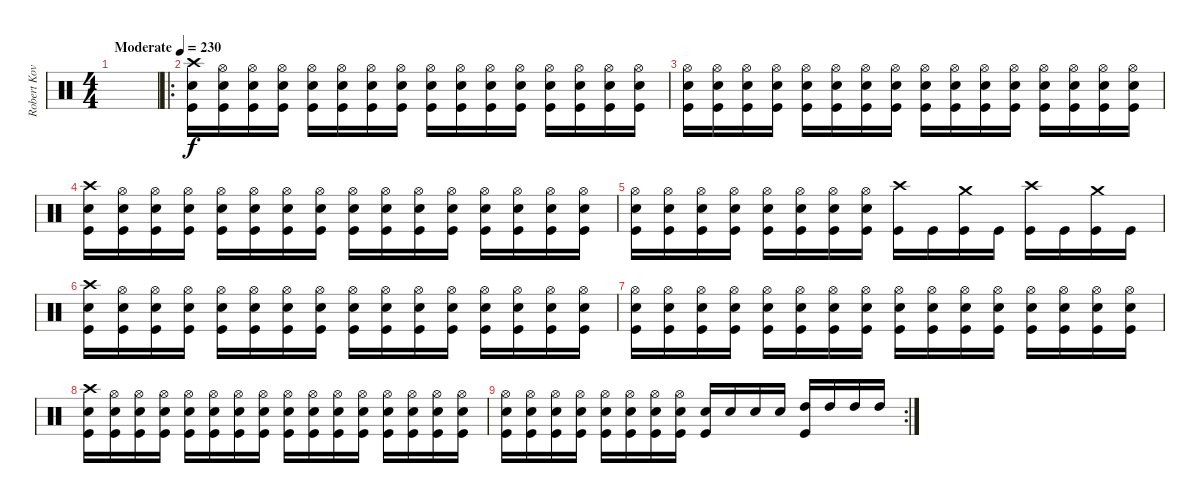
\track ("Robert Kovacic" "Robert Kov") {instrument percussion}
\staff {score}
\articulation defaults
\ts (4 4)
\tempo (230 "Moderate")
\clef neutral
\ks c
|
\ro
("Crash high (hit)" "Snare (hit) 2" "Kick (hit)").16 ("Hi-Hat (open)" "Snare (hit) 2" "Kick (hit)").16 ("Hi-Hat (open)" "Snare (hit) 2" "Kick (hit)").16 ("Hi-Hat (open)" "Snare (hit) 2" "Kick (hit)").16 ("Hi-Hat (open)" "Snare (hit) 2" "Kick (hit)").16 ("Hi-Hat (open)" "Snare (hit) 2" "Kick (hit)").16 ("Hi-Hat (open)" "Snare (hit) 2" "Kick (hit)").16 ("Hi-Hat (open)" "Snare (hit) 2" "Kick (hit)").16 ("Hi-Hat (open)" "Snare (hit) 2" "Kick (hit)").16 ("Hi-Hat (open)" "Snare (hit) 2" "Kick (hit)").16 ("Hi-Hat (open)" "Snare (hit) 2" "Kick (hit)").16 ("Hi-Hat (open)" "Snare (hit) 2" "Kick (hit)").16 ("Hi-Hat (open)" "Snare (hit) 2" "Kick (hit)").16 ("Hi-Hat (open)" "Snare (hit) 2" "Kick (hit)").16 ("Hi-Hat (open)" "Snare (hit) 2" "Kick (hit)").16 ("Hi-Hat (open)" "Snare (hit) 2" "Kick (hit)").16 |
("Hi-Hat (open)" "Snare (hit) 2" "Kick (hit)").16 ("Hi-Hat (open)" "Snare (hit) 2" "Kick (hit)").16 ("Hi-Hat (open)" "Snare (hit) 2" "Kick (hit)").16 ("Hi-Hat (open)" "Snare (hit) 2" "Kick (hit)").16 ("Hi-Hat (open)" "Snare (hit) 2" "Kick (hit)").16 ("Hi-Hat (open)" "Snare (hit) 2" "Kick (hit)").16 ("Hi-Hat (open)" "Snare (hit) 2" "Kick (hit)").16 ("Hi-Hat (open)" "Snare (hit) 2" "Kick (hit)").16 ("Hi-Hat (open)" "Snare (hit) 2" "Kick (hit)").16 ("Hi-Hat (open)" "Snare (hit) 2" "Kick (hit)").16 ("Hi-Hat (open)" "Snare (hit) 2" "Kick (hit)").16 ("Hi-Hat (open)" "Snare (hit) 2" "Kick (hit)").16 ("Hi-Hat (open)" "Snare (hit) 2" "Kick (hit)").16 ("Hi-Hat (open)" "Snare (hit) 2" "Kick (hit)").16 ("Hi-Hat (open)" "Snare (hit) 2" "Kick (hit)").16 ("Hi-Hat (open)" "Snare (hit) 2" "Kick (hit)").16 |
("Crash high (hit)" "Snare (hit) 2" "Kick (hit)").16 ("Hi-Hat (open)" "Snare (hit) 2" "Kick (hit)").16 ("Hi-Hat (open)" "Snare (hit) 2" "Kick (hit)").16 ("Hi-Hat (open)" "Snare (hit) 2" "Kick (hit)").16 ("Hi-Hat (open)" "Snare (hit) 2" "Kick (hit)").16 ("Hi-Hat (open)" "Snare (hit) 2" "Kick (hit)").16 ("Hi-Hat (open)" "Snare (hit) 2" "Kick (hit)").16 ("Hi-Hat (open)" "Snare (hit) 2" "Kick (hit)").16 ("Hi-Hat (open)" "Snare (hit) 2" "Kick (hit)").16 ("Hi-Hat (open)" "Snare (hit) 2" "Kick (hit)").16 ("Hi-Hat (open)" "Snare (hit) 2" "Kick (hit)").16 ("Hi-Hat (open)" "Snare (hit) 2" "Kick (hit)").16 ("Hi-Hat (open)" "Snare (hit) 2" "Kick (hit)").16 ("Hi-Hat (open)" "Snare (hit) 2" "Kick (hit)").16 ("Hi-Hat (open)" "Snare (hit) 2" "Kick (hit)").16 ("Hi-Hat (open)" "Snare (hit) 2" "Kick (hit)").16 |
("Hi-Hat (open)" "Snare (hit) 2" "Kick (hit)").16 ("Hi-Hat (open)" "Snare (hit) 2" "Kick (hit)").16 ("Hi-Hat (open)" "Snare (hit) 2" "Kick (hit)").16 ("Hi-Hat (open)" "Snare (hit) 2" "Kick (hit)").16 ("Hi-Hat (open)" "Snare (hit) 2" "Kick (hit)").16 ("Hi-Hat (open)" "Snare (hit) 2" "Kick (hit)").16 ("Hi-Hat (open)" "Snare (hit) 2" "Kick (hit)").16 ("Hi-Hat (open)" "Snare (hit) 2" "Kick (hit)").16 ("Crash high (hit)" "Kick (hit)").16 "Kick (hit)".16 ("Crash medium (hit)" "Kick (hit)").16 "Kick (hit)".16 ("Crash high (hit)" "Kick (hit)").16 "Kick (hit)".16 ("Crash medium (hit)" "Kick (hit)").16 "Kick (hit)".16 |
("Crash high (hit)" "Snare (hit) 2" "Kick (hit)").16 ("Hi-Hat (open)" "Snare (hit) 2" "Kick (hit)").16 ("Hi-Hat (open)" "Snare (hit) 2" "Kick (hit)").16 ("Hi-Hat (open)" "Snare (hit) 2" "Kick (hit)").16 ("Hi-Hat (open)" "Snare (hit) 2" "Kick (hit)").16 ("Hi-Hat (open)" "Snare (hit) 2" "Kick (hit)").16 ("Hi-Hat (open)" "Snare (hit) 2" "Kick (hit)").16 ("Hi-Hat (open)" "Snare (hit) 2" "Kick (hit)").16 ("Hi-Hat (open)" "Snare (hit) 2" "Kick (hit)").16 ("Hi-Hat (open)" "Snare (hit) 2" "Kick (hit)").16 ("Hi-Hat (open)" "Snare (hit) 2" "Kick (hit)").16 ("Hi-Hat (open)" "Snare (hit) 2" "Kick (hit)").16 ("Hi-Hat (open)" "Snare (hit) 2" "Kick (hit)").16 ("Hi-Hat (open)" "Snare (hit) 2" "Kick (hit)").16 ("Hi-Hat (open)" "Snare (hit) 2" "Kick (hit)").16 ("Hi-Hat (open)" "Snare (hit) 2" "Kick (hit)").16 |
("Hi-Hat (open)" "Snare (hit) 2" "Kick (hit)").16 ("Hi-Hat (open)" "Snare (hit) 2" "Kick (hit)").16 ("Hi-Hat (open)" "Snare (hit) 2" "Kick (hit)").16 ("Hi-Hat (open)" "Snare (hit) 2" "Kick (hit)").16 ("Hi-Hat (open)" "Snare (hit) 2" "Kick (hit)").16 ("Hi-Hat (open)" "Snare (hit) 2" "Kick (hit)").16 ("Hi-Hat (open)" "Snare (hit) 2" "Kick (hit)").16 ("Hi-Hat (open)" "Snare (hit) 2" "Kick (hit)").16 ("Hi-Hat (open)" "Snare (hit) 2" "Kick (hit)").16 ("Hi-Hat (open)" "Snare (hit) 2" "Kick (hit)").16 ("Hi-Hat (open)" "Snare (hit) 2" "Kick (hit)").16 ("Hi-Hat (open)" "Snare (hit) 2" "Kick (hit)").16 ("Hi-Hat (open)" "Snare (hit) 2" "Kick (hit)").16 ("Hi-Hat (open)" "Snare (hit) 2" "Kick (hit)").16 ("Hi-Hat (open)" "Snare (hit) 2" "Kick (hit)").16 ("Hi-Hat (open)" "Snare (hit) 2" "Kick (hit)").16 |
("Crash high (hit)" "Snare (hit) 2" "Kick (hit)").16 ("Hi-Hat (open)" "Snare (hit) 2" "Kick (hit)").16 ("Hi-Hat (open)" "Snare (hit) 2" "Kick (hit)").16 ("Hi-Hat (open)" "Snare (hit) 2" "Kick (hit)").16 ("Hi-Hat (open)" "Snare (hit) 2" "Kick (hit)").16 ("Hi-Hat (open)" "Snare (hit) 2" "Kick (hit)").16 ("Hi-Hat (open)" "Snare (hit) 2" "Kick (hit)").16 ("Hi-Hat (open)" "Snare (hit) 2" "Kick (hit)").16 ("Hi-Hat (open)" "Snare (hit) 2" "Kick (hit)").16 ("Hi-Hat (open)" "Snare (hit) 2" "Kick (hit)").16 ("Hi-Hat (open)" "Snare (hit) 2" "Kick (hit)").16 ("Hi-Hat (open)" "Snare (hit) 2" "Kick (hit)").16 ("Hi-Hat (open)" "Snare (hit) 2" "Kick (hit)").16 ("Hi-Hat (open)" "Snare (hit) 2" "Kick (hit)").16 ("Hi-Hat (open)" "Snare (hit) 2" "Kick (hit)").16 ("Hi-Hat (open)" "Snare (hit) 2" "Kick (hit)").16 |
\rc 2
("Hi-Hat (open)" "Snare (hit) 2" "Kick (hit)").16 ("Hi-Hat (open)" "Snare (hit) 2" "Kick (hit)").16 ("Hi-Hat (open)" "Snare (hit) 2" "Kick (hit)").16 ("Hi-Hat (open)" "Snare (hit) 2" "Kick (hit)").16 ("Hi-Hat (open)" "Snare (hit) 2" "Kick (hit)").16 ("Hi-Hat (open)" "Snare (hit) 2" "Kick (hit)").16 ("Hi-Hat (open)" "Snare (hit) 2" "Kick (hit)").16 ("Hi-Hat (open)" "Snare (hit) 2" "Kick (hit)").16 ("Snare (hit) 2" "Kick (hit)").16 "Snare (hit) 2".16 "Snare (hit) 2".16 "Snare (hit) 2".16 ("High Tom (hit)" "Kick (hit)").16 "High Tom (hit)".16 "High Tom (hit)".16 "High Tom (hit)".16
